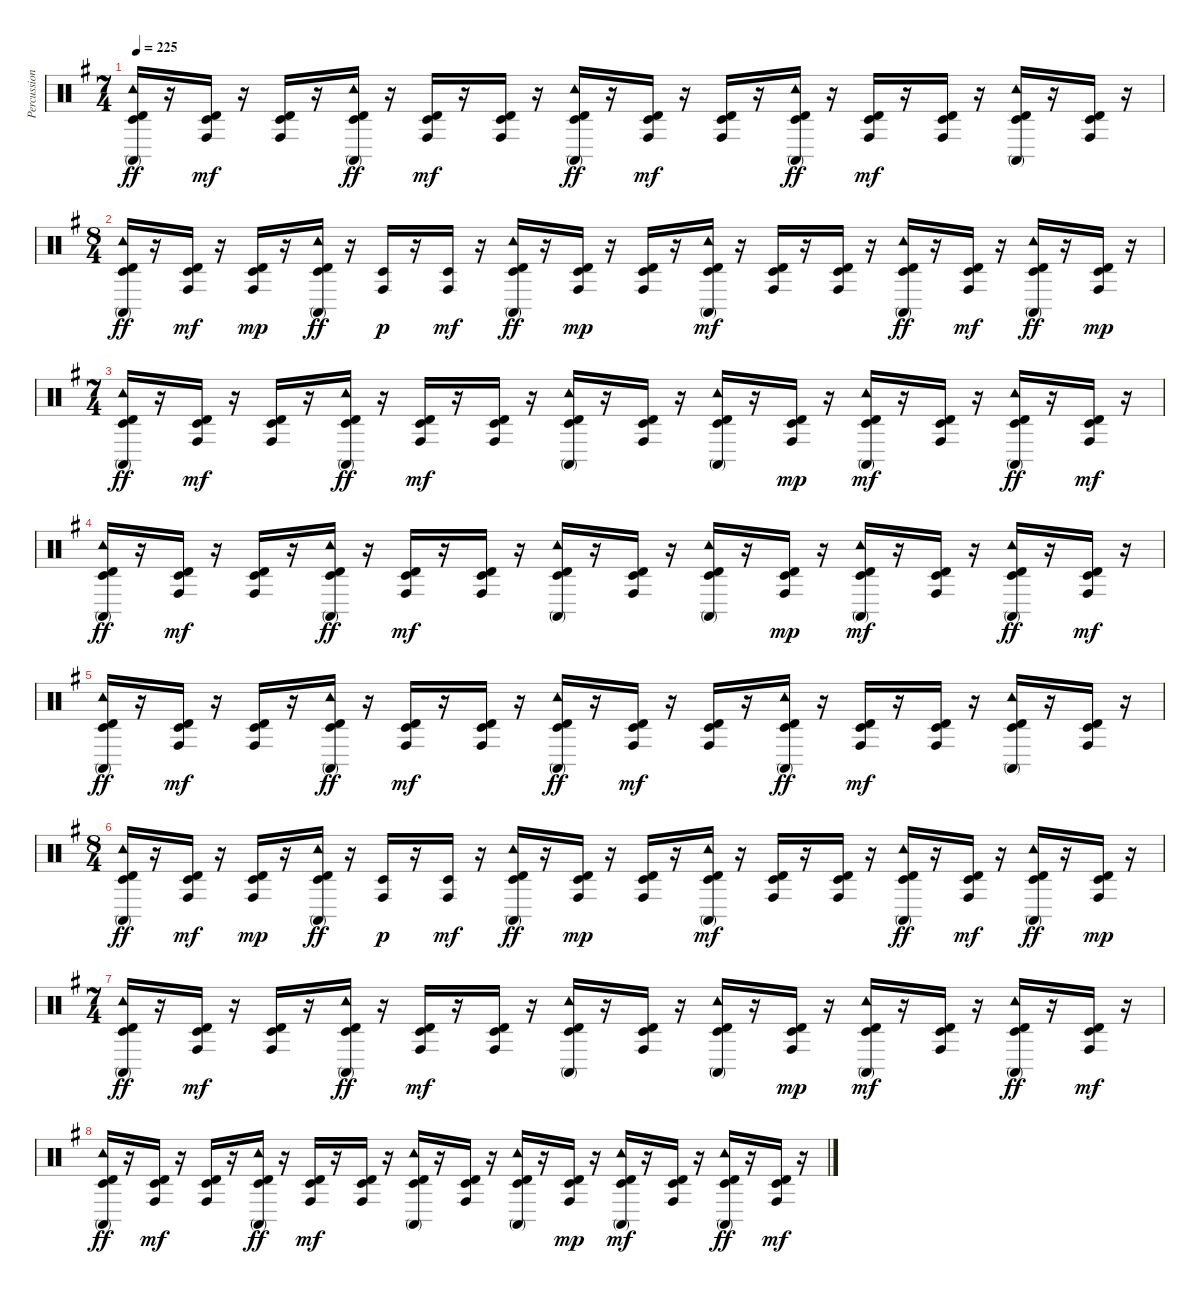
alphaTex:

\track ("Percussion" "Percussion") {instrument percussion}
\staff {score}
\articulation defaults
\ts (7 4)
\tempo 225
\clef neutral
\ks g
("Timbale high (hit)" "Timbale low (hit)" "Tambourine (hit)" "Conga high (mute)").16{dy ff} r.16 ("Timbale low (hit)" "Timbale high (hit)" "Conga high (hit)").16{dy mf} r.16 ("Timbale high (hit)" "Conga high (hit)" "Timbale low (hit)").16 r.16 ("Tambourine (hit)" "Timbale high (hit)" "Timbale low (hit)" "Conga high (mute)").16{dy ff} r.16 ("Timbale low (hit)" "Conga high (hit)" "Timbale high (hit)").16{dy mf} r.16 ("Timbale low (hit)" "Timbale high (hit)" "Conga high (hit)").16 r.16 ("Tambourine (hit)" "Timbale high (hit)" "Timbale low (hit)" "Conga high (mute)").16{dy ff} r.16 ("Timbale low (hit)" "Conga high (hit)" "Timbale high (hit)").16{dy mf} r.16 ("Timbale low (hit)" "Timbale high (hit)" "Conga high (hit)").16 r.16 ("Tambourine (hit)" "Timbale high (hit)" "Timbale low (hit)" "Conga high (mute)").16{dy ff} r.16 ("Timbale low (hit)" "Conga high (hit)" "Timbale high (hit)").16{dy mf} r.16 ("Timbale low (hit)" "Timbale high (hit)" "Conga high (hit)").16 r.16 ("Tambourine (hit)" "Conga high (mute)" "Timbale high (hit)" "Timbale low (hit)").16 r.16 ("Conga high (hit)" "Timbale low (hit)" "Timbale high (hit)").16 r.16 |
\ts (8 4)
("Timbale low (hit)" "Timbale high (hit)" "Conga high (mute)" "Tambourine (hit)").16{dy ff} r.16 ("Timbale low (hit)" "Timbale high (hit)" "Conga high (hit)").16{dy mf} r.16 ("Timbale high (hit)" "Conga high (hit)" "Timbale low (hit)").16{dy mp} r.16 ("Timbale low (hit)" "Timbale high (hit)" "Tambourine (hit)" "Conga high (mute)").16{dy ff} r.16 ("Conga high (hit)" "Timbale low (hit)").16{dy p} r.16 ("Timbale low (hit)" "Conga high (hit)").16{dy mf} r.16 ("Tambourine (hit)" "Timbale high (hit)" "Timbale low (hit)" "Conga high (mute)").16{dy ff} r.16 ("Timbale high (hit)" "Conga high (hit)" "Timbale low (hit)").16{dy mp} r.16 ("Timbale high (hit)" "Conga high (hit)" "Timbale low (hit)").16 r.16 ("Timbale high (hit)" "Conga high (mute)" "Tambourine (hit)" "Timbale low (hit)").16{dy mf} r.16 ("Timbale high (hit)" "Timbale low (hit)" "Conga high (hit)").16 r.16 ("Timbale high (hit)" "Timbale low (hit)" "Conga high (hit)").16 r.16 ("Timbale low (hit)" "Timbale high (hit)" "Tambourine (hit)" "Conga high (mute)").16{dy ff} r.16 ("Timbale high (hit)" "Timbale low (hit)" "Conga high (hit)").16{dy mf} r.16 ("Timbale low (hit)" "Timbale high (hit)" "Tambourine (hit)" "Conga high (mute)").16{dy ff} r.16 ("Timbale high (hit)" "Conga high (hit)" "Timbale low (hit)").16{dy mp} r.16 |
\ts (7 4)
("Timbale high (hit)" "Timbale low (hit)" "Tambourine (hit)" "Conga high (mute)").16{dy ff} r.16 ("Timbale low (hit)" "Timbale high (hit)" "Conga high (hit)").16{dy mf} r.16 ("Timbale high (hit)" "Conga high (hit)" "Timbale low (hit)").16 r.16 ("Tambourine (hit)" "Timbale high (hit)" "Timbale low (hit)" "Conga high (mute)").16{dy ff} r.16 ("Timbale low (hit)" "Conga high (hit)" "Timbale high (hit)").16{dy mf} r.16 ("Timbale low (hit)" "Timbale high (hit)" "Conga high (hit)").16 r.16 ("Tambourine (hit)" "Conga high (mute)" "Timbale high (hit)" "Timbale low (hit)").16 r.16 ("Conga high (hit)" "Timbale low (hit)" "Timbale high (hit)").16 r.16 ("Tambourine (hit)" "Timbale high (hit)" "Conga high (mute)" "Timbale low (hit)").16 r.16 ("Conga high (hit)" "Timbale high (hit)" "Timbale low (hit)").16{dy mp} r.16 ("Tambourine (hit)" "Conga high (mute)" "Timbale high (hit)" "Timbale low (hit)").16{dy mf} r.16 ("Timbale low (hit)" "Conga high (hit)" "Timbale high (hit)").16 r.16 ("Tambourine (hit)" "Conga high (mute)" "Timbale high (hit)" "Timbale low (hit)").16{dy ff} r.16 ("Conga high (hit)" "Timbale high (hit)" "Timbale low (hit)").16{dy mf} r.16 |
("Timbale high (hit)" "Timbale low (hit)" "Tambourine (hit)" "Conga high (mute)").16{dy ff} r.16 ("Timbale low (hit)" "Timbale high (hit)" "Conga high (hit)").16{dy mf} r.16 ("Timbale high (hit)" "Conga high (hit)" "Timbale low (hit)").16 r.16 ("Tambourine (hit)" "Timbale high (hit)" "Timbale low (hit)" "Conga high (mute)").16{dy ff} r.16 ("Timbale low (hit)" "Conga high (hit)" "Timbale high (hit)").16{dy mf} r.16 ("Timbale low (hit)" "Timbale high (hit)" "Conga high (hit)").16 r.16 ("Tambourine (hit)" "Conga high (mute)" "Timbale high (hit)" "Timbale low (hit)").16 r.16 ("Conga high (hit)" "Timbale low (hit)" "Timbale high (hit)").16 r.16 ("Tambourine (hit)" "Timbale high (hit)" "Conga high (mute)" "Timbale low (hit)").16 r.16 ("Conga high (hit)" "Timbale high (hit)" "Timbale low (hit)").16{dy mp} r.16 ("Tambourine (hit)" "Conga high (mute)" "Timbale high (hit)" "Timbale low (hit)").16{dy mf} r.16 ("Timbale low (hit)" "Conga high (hit)" "Timbale high (hit)").16 r.16 ("Tambourine (hit)" "Conga high (mute)" "Timbale high (hit)" "Timbale low (hit)").16{dy ff} r.16 ("Conga high (hit)" "Timbale high (hit)" "Timbale low (hit)").16{dy mf} r.16 |
("Timbale high (hit)" "Timbale low (hit)" "Tambourine (hit)" "Conga high (mute)").16{dy ff} r.16 ("Timbale low (hit)" "Timbale high (hit)" "Conga high (hit)").16{dy mf} r.16 ("Timbale high (hit)" "Conga high (hit)" "Timbale low (hit)").16 r.16 ("Tambourine (hit)" "Timbale high (hit)" "Timbale low (hit)" "Conga high (mute)").16{dy ff} r.16 ("Timbale low (hit)" "Conga high (hit)" "Timbale high (hit)").16{dy mf} r.16 ("Timbale low (hit)" "Timbale high (hit)" "Conga high (hit)").16 r.16 ("Tambourine (hit)" "Timbale high (hit)" "Timbale low (hit)" "Conga high (mute)").16{dy ff} r.16 ("Timbale low (hit)" "Conga high (hit)" "Timbale high (hit)").16{dy mf} r.16 ("Timbale low (hit)" "Timbale high (hit)" "Conga high (hit)").16 r.16 ("Tambourine (hit)" "Timbale high (hit)" "Timbale low (hit)" "Conga high (mute)").16{dy ff} r.16 ("Timbale low (hit)" "Conga high (hit)" "Timbale high (hit)").16{dy mf} r.16 ("Timbale low (hit)" "Timbale high (hit)" "Conga high (hit)").16 r.16 ("Tambourine (hit)" "Conga high (mute)" "Timbale high (hit)" "Timbale low (hit)").16 r.16 ("Conga high (hit)" "Timbale low (hit)" "Timbale high (hit)").16 r.16 |
\ts (8 4)
("Timbale low (hit)" "Timbale high (hit)" "Conga high (mute)" "Tambourine (hit)").16{dy ff} r.16 ("Timbale low (hit)" "Timbale high (hit)" "Conga high (hit)").16{dy mf} r.16 ("Timbale high (hit)" "Conga high (hit)" "Timbale low (hit)").16{dy mp} r.16 ("Timbale low (hit)" "Timbale high (hit)" "Tambourine (hit)" "Conga high (mute)").16{dy ff} r.16 ("Conga high (hit)" "Timbale low (hit)").16{dy p} r.16 ("Timbale low (hit)" "Conga high (hit)").16{dy mf} r.16 ("Tambourine (hit)" "Timbale high (hit)" "Timbale low (hit)" "Conga high (mute)").16{dy ff} r.16 ("Timbale high (hit)" "Conga high (hit)" "Timbale low (hit)").16{dy mp} r.16 ("Timbale high (hit)" "Conga high (hit)" "Timbale low (hit)").16 r.16 ("Timbale high (hit)" "Conga high (mute)" "Tambourine (hit)" "Timbale low (hit)").16{dy mf} r.16 ("Timbale high (hit)" "Timbale low (hit)" "Conga high (hit)").16 r.16 ("Timbale high (hit)" "Timbale low (hit)" "Conga high (hit)").16 r.16 ("Timbale low (hit)" "Timbale high (hit)" "Tambourine (hit)" "Conga high (mute)").16{dy ff} r.16 ("Timbale high (hit)" "Timbale low (hit)" "Conga high (hit)").16{dy mf} r.16 ("Timbale low (hit)" "Timbale high (hit)" "Tambourine (hit)" "Conga high (mute)").16{dy ff} r.16 ("Timbale high (hit)" "Conga high (hit)" "Timbale low (hit)").16{dy mp} r.16 |
\ts (7 4)
("Timbale high (hit)" "Timbale low (hit)" "Tambourine (hit)" "Conga high (mute)").16{dy ff} r.16 ("Timbale low (hit)" "Timbale high (hit)" "Conga high (hit)").16{dy mf} r.16 ("Timbale high (hit)" "Conga high (hit)" "Timbale low (hit)").16 r.16 ("Tambourine (hit)" "Timbale high (hit)" "Timbale low (hit)" "Conga high (mute)").16{dy ff} r.16 ("Timbale low (hit)" "Conga high (hit)" "Timbale high (hit)").16{dy mf} r.16 ("Timbale low (hit)" "Timbale high (hit)" "Conga high (hit)").16 r.16 ("Tambourine (hit)" "Conga high (mute)" "Timbale high (hit)" "Timbale low (hit)").16 r.16 ("Conga high (hit)" "Timbale low (hit)" "Timbale high (hit)").16 r.16 ("Tambourine (hit)" "Timbale high (hit)" "Conga high (mute)" "Timbale low (hit)").16 r.16 ("Conga high (hit)" "Timbale high (hit)" "Timbale low (hit)").16{dy mp} r.16 ("Tambourine (hit)" "Conga high (mute)" "Timbale high (hit)" "Timbale low (hit)").16{dy mf} r.16 ("Timbale low (hit)" "Conga high (hit)" "Timbale high (hit)").16 r.16 ("Tambourine (hit)" "Conga high (mute)" "Timbale high (hit)" "Timbale low (hit)").16{dy ff} r.16 ("Conga high (hit)" "Timbale high (hit)" "Timbale low (hit)").16{dy mf} r.16 |
("Timbale high (hit)" "Timbale low (hit)" "Tambourine (hit)" "Conga high (mute)").16{dy ff} r.16 ("Timbale low (hit)" "Timbale high (hit)" "Conga high (hit)").16{dy mf} r.16 ("Timbale high (hit)" "Conga high (hit)" "Timbale low (hit)").16 r.16 ("Tambourine (hit)" "Timbale high (hit)" "Timbale low (hit)" "Conga high (mute)").16{dy ff} r.16 ("Timbale low (hit)" "Conga high (hit)" "Timbale high (hit)").16{dy mf} r.16 ("Timbale low (hit)" "Timbale high (hit)" "Conga high (hit)").16 r.16 ("Tambourine (hit)" "Conga high (mute)" "Timbale high (hit)" "Timbale low (hit)").16 r.16 ("Conga high (hit)" "Timbale low (hit)" "Timbale high (hit)").16 r.16 ("Tambourine (hit)" "Timbale high (hit)" "Conga high (mute)" "Timbale low (hit)").16 r.16 ("Conga high (hit)" "Timbale high (hit)" "Timbale low (hit)").16{dy mp} r.16 ("Tambourine (hit)" "Conga high (mute)" "Timbale high (hit)" "Timbale low (hit)").16{dy mf} r.16 ("Timbale low (hit)" "Conga high (hit)" "Timbale high (hit)").16 r.16 ("Tambourine (hit)" "Conga high (mute)" "Timbale high (hit)" "Timbale low (hit)").16{dy ff} r.16 ("Conga high (hit)" "Timbale high (hit)" "Timbale low (hit)").16{dy mf} r.16
